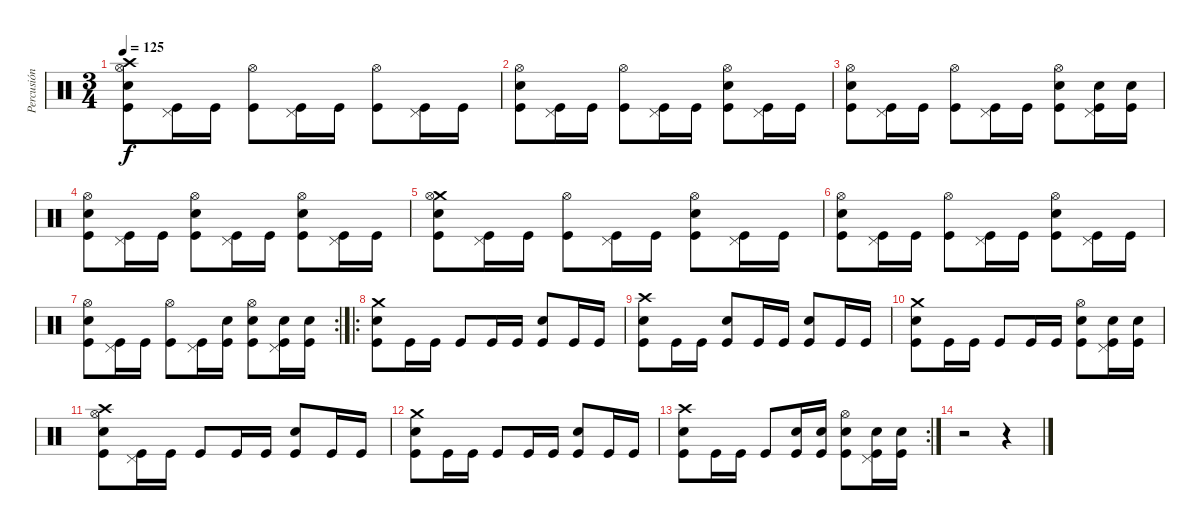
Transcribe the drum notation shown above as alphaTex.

\track ("Percusión" "Percusión") {instrument percussion}
\staff {score}
\articulation defaults
\ts (3 4)
\tempo 125
\clef neutral
\ks c
("Crash high (hit)" "Electric Snare (hit)" "Kick (hit)" "Hi-Hat (open)").8{dy f} ("Kick (hit)" "Pedal Hi-Hat (hit)").16 "Kick (hit)".16 ("Kick (hit)" "Hi-Hat (open)").8 ("Kick (hit)" "Pedal Hi-Hat (hit)").16 "Kick (hit)".16 ("Kick (hit)" "Hi-Hat (open)").8 ("Kick (hit)" "Pedal Hi-Hat (hit)").16 "Kick (hit)".16 |
("Electric Snare (hit)" "Kick (hit)" "Hi-Hat (open)").8 ("Kick (hit)" "Pedal Hi-Hat (hit)").16 "Kick (hit)".16 ("Kick (hit)" "Hi-Hat (open)").8 ("Kick (hit)" "Pedal Hi-Hat (hit)").16 "Kick (hit)".16 ("Electric Snare (hit)" "Kick (hit)" "Hi-Hat (open)").8 ("Kick (hit)" "Pedal Hi-Hat (hit)").16 "Kick (hit)".16 |
("Electric Snare (hit)" "Kick (hit)" "Hi-Hat (open)").8 ("Kick (hit)" "Pedal Hi-Hat (hit)").16 "Kick (hit)".16 ("Kick (hit)" "Hi-Hat (open)").8 ("Kick (hit)" "Pedal Hi-Hat (hit)").16 "Kick (hit)".16 ("Electric Snare (hit)" "Kick (hit)" "Hi-Hat (open)").8 ("Electric Snare (hit)" "Kick (hit)" "Pedal Hi-Hat (hit)").16 ("Electric Snare (hit)" "Kick (hit)").16 |
("Electric Snare (hit)" "Kick (hit)" "Hi-Hat (open)").8 ("Kick (hit)" "Pedal Hi-Hat (hit)").16 "Kick (hit)".16 ("Electric Snare (hit)" "Kick (hit)" "Hi-Hat (open)").8 ("Kick (hit)" "Pedal Hi-Hat (hit)").16 "Kick (hit)".16 ("Electric Snare (hit)" "Kick (hit)" "Hi-Hat (open)").8 ("Kick (hit)" "Pedal Hi-Hat (hit)").16 "Kick (hit)".16 |
("Crash medium (hit)" "Electric Snare (hit)" "Kick (hit)" "Hi-Hat (open)").8 ("Kick (hit)" "Pedal Hi-Hat (hit)").16 "Kick (hit)".16 ("Kick (hit)" "Hi-Hat (open)").8 ("Kick (hit)" "Pedal Hi-Hat (hit)").16 "Kick (hit)".16 ("Electric Snare (hit)" "Kick (hit)" "Hi-Hat (open)").8 ("Kick (hit)" "Pedal Hi-Hat (hit)").16 "Kick (hit)".16 |
("Electric Snare (hit)" "Kick (hit)" "Hi-Hat (open)").8 ("Kick (hit)" "Pedal Hi-Hat (hit)").16 "Kick (hit)".16 ("Kick (hit)" "Hi-Hat (open)").8 ("Kick (hit)" "Pedal Hi-Hat (hit)").16 "Kick (hit)".16 ("Electric Snare (hit)" "Kick (hit)" "Hi-Hat (open)").8 ("Kick (hit)" "Pedal Hi-Hat (hit)").16 "Kick (hit)".16 |
\rc 2
("Electric Snare (hit)" "Kick (hit)" "Hi-Hat (open)").8 ("Kick (hit)" "Pedal Hi-Hat (hit)").16 "Kick (hit)".16 ("Kick (hit)" "Hi-Hat (open)").8 ("Kick (hit)" "Pedal Hi-Hat (hit)").16 ("Electric Snare (hit)" "Kick (hit)").16 ("Electric Snare (hit)" "Kick (hit)" "Hi-Hat (open)").8 ("Electric Snare (hit)" "Kick (hit)" "Pedal Hi-Hat (hit)").16 ("Electric Snare (hit)" "Kick (hit)").16 |
\ro
("Crash medium (hit)" "Electric Snare (hit)" "Kick (hit)").8 "Kick (hit)".16 "Kick (hit)".16 "Kick (hit)".8 "Kick (hit)".16 "Kick (hit)".16 ("Electric Snare (hit)" "Kick (hit)").8 "Kick (hit)".16 "Kick (hit)".16 |
("Crash high (hit)" "Electric Snare (hit)" "Kick (hit)").8 "Kick (hit)".16 "Kick (hit)".16 ("Electric Snare (hit)" "Kick (hit)").8 "Kick (hit)".16 "Kick (hit)".16 ("Electric Snare (hit)" "Kick (hit)").8 "Kick (hit)".16 "Kick (hit)".16 |
("Crash medium (hit)" "Electric Snare (hit)" "Kick (hit)").8 "Kick (hit)".16 "Kick (hit)".16 "Kick (hit)".8 "Kick (hit)".16 "Kick (hit)".16 ("Electric Snare (hit)" "Kick (hit)" "Hi-Hat (open)").8 ("Electric Snare (hit)" "Kick (hit)" "Pedal Hi-Hat (hit)").16 ("Electric Snare (hit)" "Kick (hit)").16 |
("Crash high (hit)" "Electric Snare (hit)" "Kick (hit)" "Hi-Hat (open)").8 ("Kick (hit)" "Pedal Hi-Hat (hit)").16 "Kick (hit)".16 "Kick (hit)".8 "Kick (hit)".16 "Kick (hit)".16 ("Electric Snare (hit)" "Kick (hit)").8 "Kick (hit)".16 "Kick (hit)".16 |
("Crash medium (hit)" "Electric Snare (hit)" "Kick (hit)").8 "Kick (hit)".16 "Kick (hit)".16 "Kick (hit)".8 "Kick (hit)".16 "Kick (hit)".16 ("Electric Snare (hit)" "Kick (hit)").8 "Kick (hit)".16 "Kick (hit)".16 |
\rc 2
("Crash high (hit)" "Electric Snare (hit)" "Kick (hit)").8 "Kick (hit)".16 "Kick (hit)".16 "Kick (hit)".8 ("Electric Snare (hit)" "Kick (hit)").16 ("Electric Snare (hit)" "Kick (hit)").16 ("Electric Snare (hit)" "Kick (hit)" "Hi-Hat (open)").8 ("Electric Snare (hit)" "Kick (hit)" "Pedal Hi-Hat (hit)").16 ("Electric Snare (hit)" "Kick (hit)").16 |
r.2 r.4
